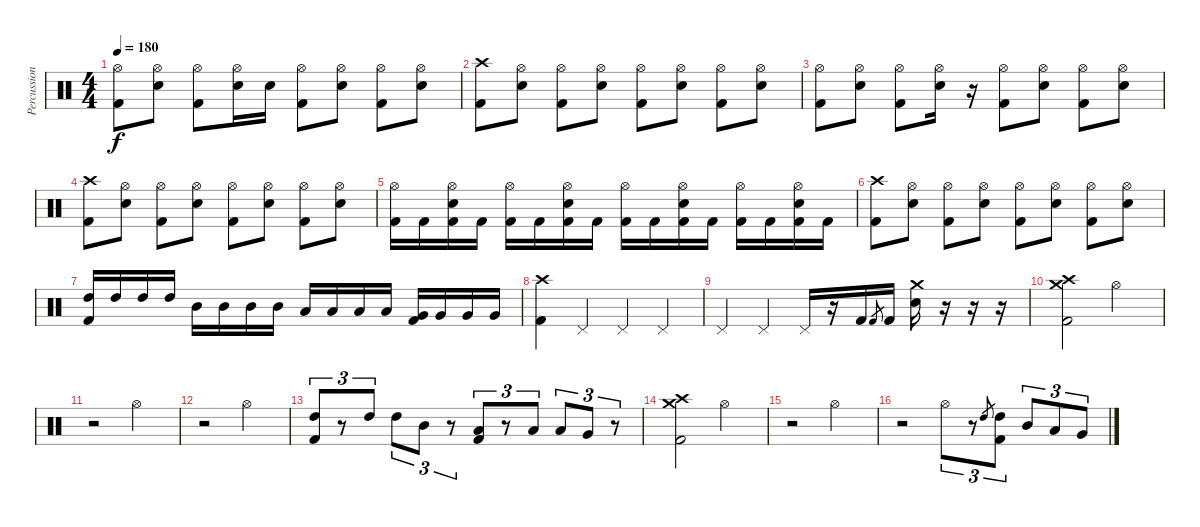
\track ("Percussion" "Percussion") {instrument percussion}
\staff {score}
\articulation defaults
\ts (4 4)
\tempo 180
\clef neutral
\ks c
("Hi-Hat (open)" "Kick (hit) 2").8{dy f} ("Hi-Hat (open)" "Snare (hit) 2").8 ("Hi-Hat (open)" "Kick (hit) 2").8 ("Hi-Hat (open)" "Snare (hit) 2").16 "Snare (hit) 2".16 ("Hi-Hat (open)" "Kick (hit) 2").8 ("Hi-Hat (open)" "Snare (hit) 2").8 ("Hi-Hat (open)" "Kick (hit) 2").8 ("Hi-Hat (open)" "Snare (hit) 2").8 |
("Crash high (hit)" "Kick (hit) 2").8 ("Hi-Hat (open)" "Snare (hit) 2").8 ("Hi-Hat (open)" "Kick (hit) 2").8 ("Hi-Hat (open)" "Snare (hit) 2").8 ("Hi-Hat (open)" "Kick (hit) 2").8 ("Hi-Hat (open)" "Snare (hit) 2").8 ("Hi-Hat (open)" "Kick (hit) 2").8 ("Hi-Hat (open)" "Snare (hit) 2").8 |
("Hi-Hat (open)" "Kick (hit) 2").8 ("Hi-Hat (open)" "Snare (hit) 2").8 ("Hi-Hat (open)" "Kick (hit) 2").8 ("Hi-Hat (open)" "Snare (hit) 2").16 r.16 ("Hi-Hat (open)" "Kick (hit) 2").8 ("Hi-Hat (open)" "Snare (hit) 2").8 ("Hi-Hat (open)" "Kick (hit) 2").8 ("Hi-Hat (open)" "Snare (hit) 2").8 |
("Crash high (hit)" "Kick (hit) 2").8 ("Hi-Hat (open)" "Snare (hit) 2").8 ("Hi-Hat (open)" "Kick (hit) 2").8 ("Hi-Hat (open)" "Snare (hit) 2").8 ("Hi-Hat (open)" "Kick (hit) 2").8 ("Hi-Hat (open)" "Snare (hit) 2").8 ("Hi-Hat (open)" "Kick (hit) 2").8 ("Hi-Hat (open)" "Snare (hit) 2").8 |
("Hi-Hat (open)" "Kick (hit) 2").16 "Kick (hit) 2".16 ("Hi-Hat (open)" "Snare (hit) 2" "Kick (hit) 2").16 "Kick (hit) 2".16 ("Hi-Hat (open)" "Kick (hit) 2").16 "Kick (hit) 2".16 ("Hi-Hat (open)" "Snare (hit) 2" "Kick (hit) 2").16 "Kick (hit) 2".16 ("Hi-Hat (open)" "Kick (hit) 2").16 "Kick (hit) 2".16 ("Hi-Hat (open)" "Snare (hit) 2" "Kick (hit) 2").16 "Kick (hit) 2".16 ("Hi-Hat (open)" "Kick (hit) 2").16 "Kick (hit) 2".16 ("Hi-Hat (open)" "Snare (hit) 2" "Kick (hit) 2").16 "Kick (hit) 2".16 |
("Crash high (hit)" "Kick (hit) 2").8 ("Hi-Hat (open)" "Snare (hit) 2").8 ("Hi-Hat (open)" "Kick (hit) 2").8 ("Hi-Hat (open)" "Snare (hit) 2").8 ("Hi-Hat (open)" "Kick (hit) 2").8 ("Hi-Hat (open)" "Snare (hit) 2").8 ("Hi-Hat (open)" "Kick (hit) 2").8 ("Hi-Hat (open)" "Snare (hit) 2").8 |
("High Tom (hit)" "Kick (hit) 2").16 "High Tom (hit)".16 "High Tom (hit)".16 "High Tom (hit)".16 "Mid Tom (hit)".16 "Mid Tom (hit)".16 "Mid Tom (hit)".16 "Mid Tom (hit)".16 "Low Tom (hit)".16 "Low Tom (hit)".16 "Low Tom (hit)".16 "Low Tom (hit)".16 ("Very Low Tom (hit)" "Kick (hit) 2").16 "Very Low Tom (hit)".16 "Very Low Tom (hit)".16 "Very Low Tom (hit)".16 |
("Crash high (hit)" "Kick (hit) 2").4 "Pedal Hi-Hat (hit)".4 "Pedal Hi-Hat (hit)".4 "Pedal Hi-Hat (hit)".4 |
"Pedal Hi-Hat (hit)".4 "Pedal Hi-Hat (hit)".4 "Pedal Hi-Hat (hit)".16 r.16 "Kick (hit) 2".16 "Kick (hit) 2".8{gr} "Kick (hit) 2".16 ("Crash medium (hit)" "Snare (hit) 2").16 r.16 r.16 r.16 |
("Crash high (hit)" "Crash medium (hit)" "Kick (hit) 2").2 "Hi-Hat (open)".2 |
r.2 "Hi-Hat (open)".2 |
r.2 "Hi-Hat (open)".2 |
("High Tom (hit)" "Kick (hit) 2").8{tu (3 2)} r.8{tu (3 2)} "High Tom (hit)".8{tu (3 2)} "High Tom (hit)".8{tu (3 2)} "Mid Tom (hit)".8{tu (3 2)} r.8{tu (3 2)} ("Low Tom (hit)" "Kick (hit) 2").8{tu (3 2)} r.8{tu (3 2)} "Low Tom (hit)".8{tu (3 2)} "Low Tom (hit)".8{tu (3 2)} "Very Low Tom (hit)".8{tu (3 2)} r.8{tu (3 2)} |
("Crash high (hit)" "Crash medium (hit)" "Kick (hit) 2").2 "Hi-Hat (open)".2 |
r.2 "Hi-Hat (open)".2 |
r.2 "Hi-Hat (open)".8{tu (3 2)} r.8{tu (3 2)} "High Tom (hit)".8{gr} ("High Tom (hit)" "Kick (hit) 2").8{tu (3 2)} "Mid Tom (hit)".8{tu (3 2)} "Low Tom (hit)".8{tu (3 2)} "Very Low Tom (hit)".8{tu (3 2)}
